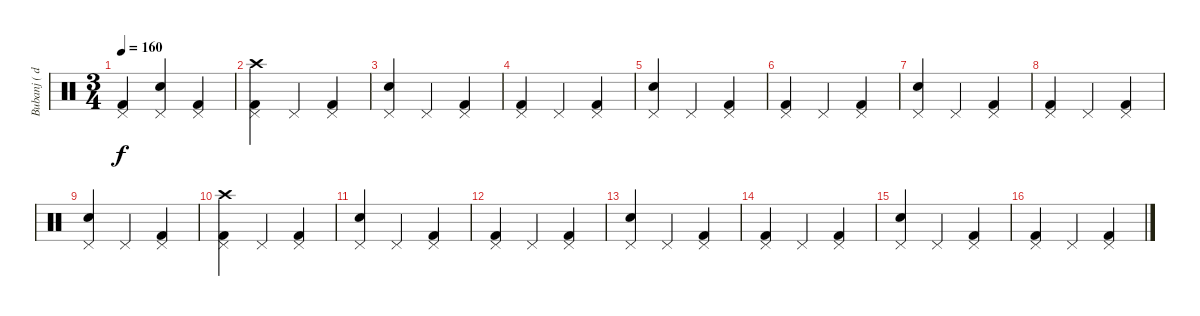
\track ("Bubanj ( drums )" "Bubanj ( d") {instrument percussion}
\staff {score}
\articulation defaults
\ts (3 4)
\tempo 160
\clef neutral
\ks c
("Kick (hit) 2" "Pedal Hi-Hat (hit)").4{dy f} ("Snare (hit) 2" "Pedal Hi-Hat (hit)").4 ("Kick (hit) 2" "Pedal Hi-Hat (hit)").4 |
("Kick (hit) 2" "Crash high (hit)" "Pedal Hi-Hat (hit)").4 "Pedal Hi-Hat (hit)".4 ("Kick (hit) 2" "Pedal Hi-Hat (hit)").4 |
("Snare (hit) 2" "Pedal Hi-Hat (hit)").4 "Pedal Hi-Hat (hit)".4 ("Kick (hit) 2" "Pedal Hi-Hat (hit)").4 |
("Kick (hit) 2" "Pedal Hi-Hat (hit)").4 "Pedal Hi-Hat (hit)".4 ("Kick (hit) 2" "Pedal Hi-Hat (hit)").4 |
("Snare (hit) 2" "Pedal Hi-Hat (hit)").4 "Pedal Hi-Hat (hit)".4 ("Kick (hit) 2" "Pedal Hi-Hat (hit)").4 |
("Kick (hit) 2" "Pedal Hi-Hat (hit)").4 "Pedal Hi-Hat (hit)".4 ("Kick (hit) 2" "Pedal Hi-Hat (hit)").4 |
("Snare (hit) 2" "Pedal Hi-Hat (hit)").4 "Pedal Hi-Hat (hit)".4 ("Kick (hit) 2" "Pedal Hi-Hat (hit)").4 |
("Kick (hit) 2" "Pedal Hi-Hat (hit)").4 "Pedal Hi-Hat (hit)".4 ("Kick (hit) 2" "Pedal Hi-Hat (hit)").4 |
("Snare (hit) 2" "Pedal Hi-Hat (hit)").4 "Pedal Hi-Hat (hit)".4 ("Kick (hit) 2" "Pedal Hi-Hat (hit)").4 |
("Kick (hit) 2" "Crash high (hit)" "Pedal Hi-Hat (hit)").4 "Pedal Hi-Hat (hit)".4 ("Kick (hit) 2" "Pedal Hi-Hat (hit)").4 |
("Snare (hit) 2" "Pedal Hi-Hat (hit)").4 "Pedal Hi-Hat (hit)".4 ("Kick (hit) 2" "Pedal Hi-Hat (hit)").4 |
("Kick (hit) 2" "Pedal Hi-Hat (hit)").4 "Pedal Hi-Hat (hit)".4 ("Kick (hit) 2" "Pedal Hi-Hat (hit)").4 |
("Snare (hit) 2" "Pedal Hi-Hat (hit)").4 "Pedal Hi-Hat (hit)".4 ("Kick (hit) 2" "Pedal Hi-Hat (hit)").4 |
("Kick (hit) 2" "Pedal Hi-Hat (hit)").4 "Pedal Hi-Hat (hit)".4 ("Kick (hit) 2" "Pedal Hi-Hat (hit)").4 |
("Snare (hit) 2" "Pedal Hi-Hat (hit)").4 "Pedal Hi-Hat (hit)".4 ("Kick (hit) 2" "Pedal Hi-Hat (hit)").4 |
("Kick (hit) 2" "Pedal Hi-Hat (hit)").4 "Pedal Hi-Hat (hit)".4 ("Kick (hit) 2" "Pedal Hi-Hat (hit)").4
